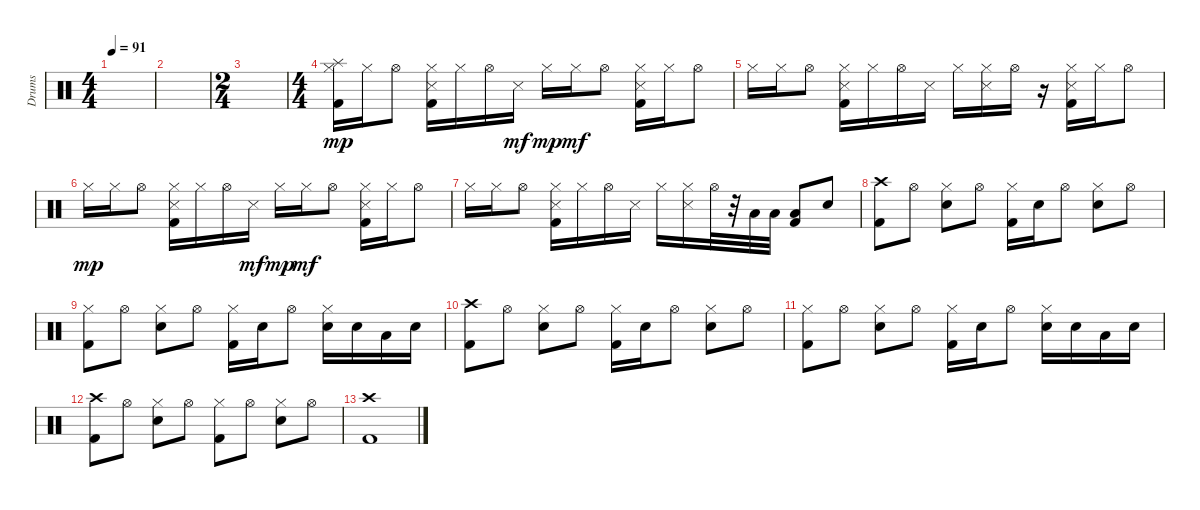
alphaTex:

\track ("Drums" "Drums") {instrument percussion}
\staff {score}
\articulation defaults
\ts (4 4)
\tempo 91
\clef neutral
\ks c
|
|
\ts (2 4)
|
\ts (4 4)
("Hi-Hat (closed)" "Kick (hit) 2" "Splash (hit)").16{dy mp} "Hi-Hat (closed)".16 "Hi-Hat (open)".8 ("Hi-Hat (closed)" "Snare (side stick) 3" "Kick (hit) 2").16 "Hi-Hat (closed)".16 "Hi-Hat (open)".16 "Snare (side stick) 3".16{dy mf} "Hi-Hat (closed)".16{dy mp} "Hi-Hat (closed)".16{dy mf} "Hi-Hat (open)".8 ("Hi-Hat (closed)" "Snare (side stick) 3" "Kick (hit) 2").16 "Hi-Hat (closed)".16 "Hi-Hat (open)".8 |
"Hi-Hat (closed)".16 "Hi-Hat (closed)".16 "Hi-Hat (open)".8 ("Hi-Hat (closed)" "Kick (hit) 2" "Snare (side stick) 3").16 "Hi-Hat (closed)".16 "Hi-Hat (open)".16 "Snare (side stick) 3".16 "Hi-Hat (closed)".16 ("Hi-Hat (closed)" "Snare (side stick) 3").16 "Hi-Hat (open)".16 r.16 ("Hi-Hat (closed)" "Snare (side stick) 3" "Kick (hit) 2").16 "Hi-Hat (closed)".16 "Hi-Hat (open)".8 |
"Hi-Hat (closed)".16{dy mp} "Hi-Hat (closed)".16 "Hi-Hat (open)".8 ("Hi-Hat (closed)" "Snare (side stick) 3" "Kick (hit) 2").16 "Hi-Hat (closed)".16 "Hi-Hat (open)".16 "Snare (side stick) 3".16{dy mf} "Hi-Hat (closed)".16{dy mp} "Hi-Hat (closed)".16{dy mf} "Hi-Hat (open)".8 ("Hi-Hat (closed)" "Snare (side stick) 3" "Kick (hit) 2").16 "Hi-Hat (closed)".16 "Hi-Hat (open)".8 |
"Hi-Hat (closed)".16 "Hi-Hat (closed)".16 "Hi-Hat (open)".8 ("Hi-Hat (closed)" "Kick (hit) 2" "Snare (side stick) 3").16 "Hi-Hat (closed)".16 "Hi-Hat (open)".16 "Snare (side stick) 3".16 "Hi-Hat (closed)".16 ("Hi-Hat (closed)" "Snare (side stick) 3").16 "Hi-Hat (open)".32 r.32 "Low Tom (hit)".32 "Low Tom (hit)".32 ("Low Tom (hit)" "Kick (hit) 2").8 "Snare (hit) 2".8 |
("Crash high (hit)" "Kick (hit) 2").8 "Hi-Hat (open)".8 ("Hi-Hat (closed)" "Snare (hit) 2").8 "Hi-Hat (open)".8 ("Hi-Hat (closed)" "Kick (hit) 2").16 "Snare (hit) 2".16 "Hi-Hat (open)".8 ("Hi-Hat (closed)" "Snare (hit) 2").8 "Hi-Hat (open)".8 |
("Hi-Hat (closed)" "Kick (hit) 2").8 "Hi-Hat (open)".8 ("Hi-Hat (closed)" "Snare (hit) 2").8 "Hi-Hat (open)".8 ("Hi-Hat (closed)" "Kick (hit) 2").16 "Snare (hit) 2".16 "Hi-Hat (open)".8 ("Hi-Hat (closed)" "Snare (hit) 2").16 "Snare (hit) 2".16 "Low Tom (hit)".16 "Snare (hit) 2".16 |
("Crash high (hit)" "Kick (hit) 2").8 "Hi-Hat (open)".8 ("Hi-Hat (closed)" "Snare (hit) 2").8 "Hi-Hat (open)".8 ("Hi-Hat (closed)" "Kick (hit) 2").16 "Snare (hit) 2".16 "Hi-Hat (open)".8 ("Hi-Hat (closed)" "Snare (hit) 2").8 "Hi-Hat (open)".8 |
("Hi-Hat (closed)" "Kick (hit) 2").8 "Hi-Hat (open)".8 ("Hi-Hat (closed)" "Snare (hit) 2").8 "Hi-Hat (open)".8 ("Hi-Hat (closed)" "Kick (hit) 2").16 "Snare (hit) 2".16 "Hi-Hat (open)".8 ("Hi-Hat (closed)" "Snare (hit) 2").16 "Snare (hit) 2".16 "Low Tom (hit)".16 "Snare (hit) 2".16 |
("Crash high (hit)" "Kick (hit) 2").8 "Hi-Hat (open)".8 ("Hi-Hat (closed)" "Snare (hit) 2").8 "Hi-Hat (open)".8 ("Hi-Hat (closed)" "Kick (hit) 2").8 "Hi-Hat (open)".8 ("Hi-Hat (closed)" "Snare (hit) 2").8 "Hi-Hat (open)".8 |
("Crash high (hit)" "Kick (hit) 2").1
